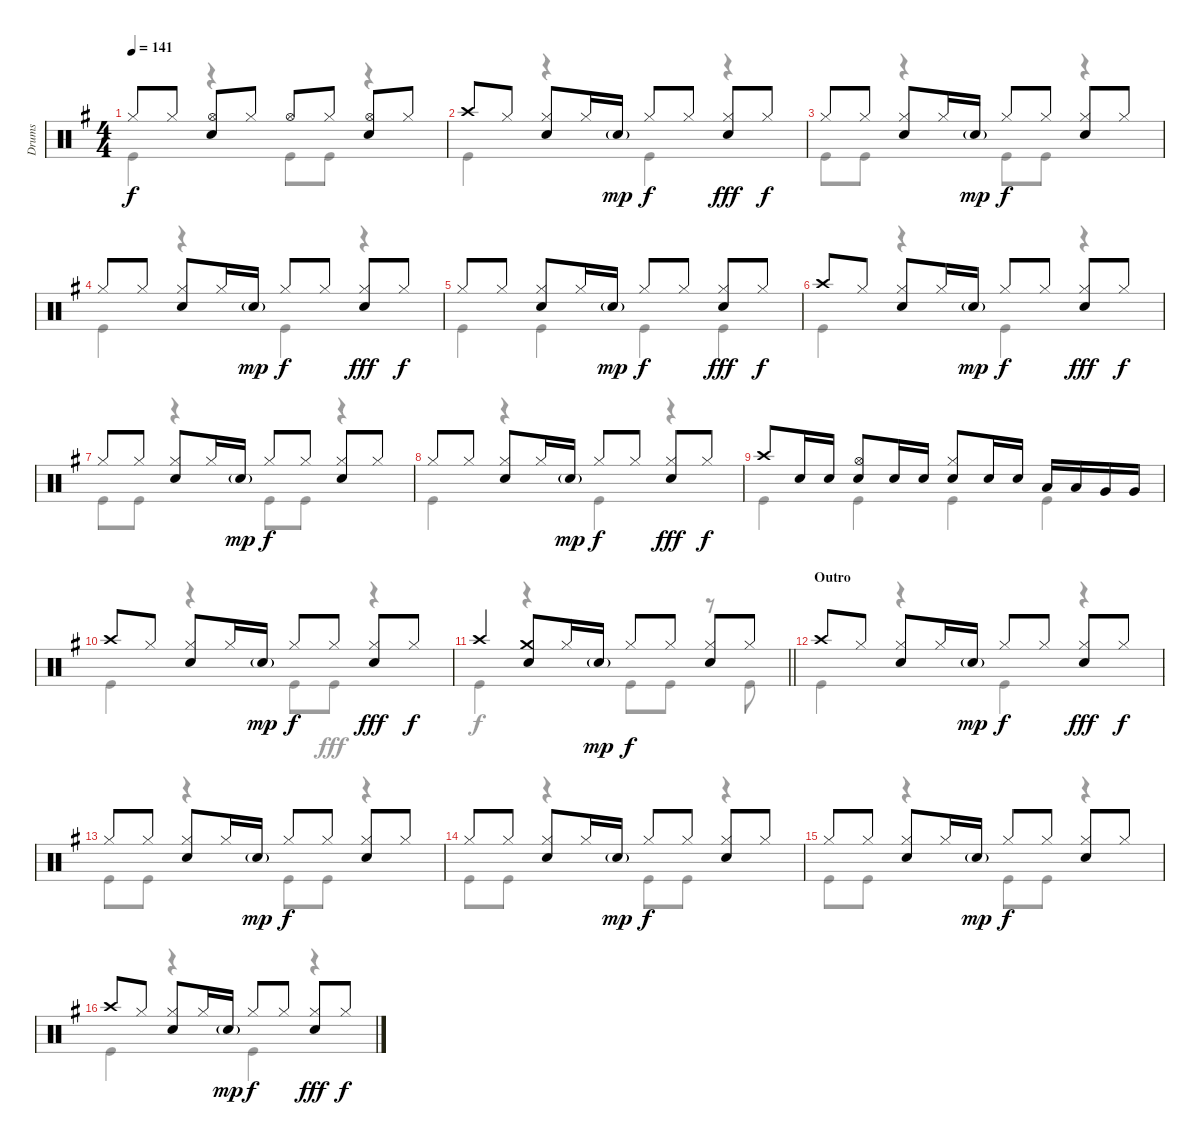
\track ("Drums" "Drums") {instrument percussion}
\staff {score}
\articulation defaults
\voice
\ts (4 4)
\tempo 141
\clef neutral
\ks g "Hi-Hat (closed)".8{dy f} "Hi-Hat (closed)".8
("Hi-Hat (open)" "Snare (hit) 2").8 "Hi-Hat (closed)".8 "Hi-Hat (open)".8 "Hi-Hat (closed)".8 ("Hi-Hat (open)" "Snare (hit) 2").8 "Hi-Hat (closed)".8 |
"Crash high (hit)".8 "Hi-Hat (closed)".8 ("Hi-Hat (closed)" "Snare (hit) 2").8 "Hi-Hat (closed)".16 "Snare (hit) 2"{g}.16{dy mp} "Hi-Hat (closed)".8{dy f} "Hi-Hat (closed)".8 ("Hi-Hat (closed)" "Snare (hit) 2").8{dy fff} "Hi-Hat (closed)".8{dy f} |
"Hi-Hat (closed)".8 "Hi-Hat (closed)".8 ("Hi-Hat (closed)" "Snare (hit) 2").8 "Hi-Hat (closed)".16 "Snare (hit) 2"{g}.16{dy mp} "Hi-Hat (closed)".8{dy f} "Hi-Hat (closed)".8 ("Hi-Hat (closed)" "Snare (hit) 2").8 "Hi-Hat (closed)".8 |
"Hi-Hat (closed)".8 "Hi-Hat (closed)".8 ("Hi-Hat (closed)" "Snare (hit) 2").8 "Hi-Hat (closed)".16 "Snare (hit) 2"{g}.16{dy mp} "Hi-Hat (closed)".8{dy f} "Hi-Hat (closed)".8 ("Hi-Hat (closed)" "Snare (hit) 2").8{dy fff} "Hi-Hat (closed)".8{dy f} |
"Hi-Hat (closed)".8 "Hi-Hat (closed)".8 ("Hi-Hat (closed)" "Snare (hit) 2").8 "Hi-Hat (closed)".16 "Snare (hit) 2"{g}.16{dy mp} "Hi-Hat (closed)".8{dy f} "Hi-Hat (closed)".8 ("Hi-Hat (closed)" "Snare (hit) 2").8{dy fff} "Hi-Hat (closed)".8{dy f} |
"Crash high (hit)".8 "Hi-Hat (closed)".8 ("Hi-Hat (closed)" "Snare (hit) 2").8 "Hi-Hat (closed)".16 "Snare (hit) 2"{g}.16{dy mp} "Hi-Hat (closed)".8{dy f} "Hi-Hat (closed)".8 ("Hi-Hat (closed)" "Snare (hit) 2").8{dy fff} "Hi-Hat (closed)".8{dy f} |
"Hi-Hat (closed)".8 "Hi-Hat (closed)".8 ("Hi-Hat (closed)" "Snare (hit) 2").8 "Hi-Hat (closed)".16 "Snare (hit) 2"{g}.16{dy mp} "Hi-Hat (closed)".8{dy f} "Hi-Hat (closed)".8 ("Hi-Hat (closed)" "Snare (hit) 2").8 "Hi-Hat (closed)".8 |
"Hi-Hat (closed)".8 "Hi-Hat (closed)".8 ("Hi-Hat (closed)" "Snare (hit) 2").8 "Hi-Hat (closed)".16 "Snare (hit) 2"{g}.16{dy mp} "Hi-Hat (closed)".8{dy f} "Hi-Hat (closed)".8 ("Hi-Hat (closed)" "Snare (hit) 2").8{dy fff} "Hi-Hat (closed)".8{dy f} |
"Crash high (hit)".8 "Snare (hit) 2".16 "Snare (hit) 2".16 ("Hi-Hat (open)" "Snare (hit) 2").8 "Snare (hit) 2".16 "Snare (hit) 2".16 ("Hi-Hat (closed)" "Snare (hit) 2").8 "Snare (hit) 2".16 "Snare (hit) 2".16 "Low Tom (hit)".16 "Low Tom (hit)".16 "Very Low Tom (hit)".16 "Very Low Tom (hit)".16 |
"Crash high (hit)".8 "Hi-Hat (closed)".8 ("Hi-Hat (closed)" "Snare (hit) 2").8 "Hi-Hat (closed)".16 "Snare (hit) 2"{g}.16{dy mp} "Hi-Hat (closed)".8{dy f} "Hi-Hat (closed)".8 ("Hi-Hat (closed)" "Snare (hit) 2").8{dy fff} "Hi-Hat (closed)".8{dy f} |
\barLineRight lightlight "Crash high (hit)".4
("Crash medium (hit)" "Snare (hit) 2").8 "Hi-Hat (closed)".16 "Snare (hit) 2"{g}.16{dy mp} "Hi-Hat (closed)".8{dy f} "Hi-Hat (closed)".8 ("Hi-Hat (closed)" "Snare (hit) 2").8 "Hi-Hat (closed)".8 |
\section ("" "Outro")
"Crash high (hit)".8 "Hi-Hat (closed)".8 ("Hi-Hat (closed)" "Snare (hit) 2").8 "Hi-Hat (closed)".16 "Snare (hit) 2"{g}.16{dy mp} "Hi-Hat (closed)".8{dy f} "Hi-Hat (closed)".8 ("Hi-Hat (closed)" "Snare (hit) 2").8{dy fff} "Hi-Hat (closed)".8{dy f} |
"Hi-Hat (closed)".8 "Hi-Hat (closed)".8 ("Hi-Hat (closed)" "Snare (hit) 2").8 "Hi-Hat (closed)".16 "Snare (hit) 2"{g}.16{dy mp} "Hi-Hat (closed)".8{dy f} "Hi-Hat (closed)".8 ("Hi-Hat (closed)" "Snare (hit) 2").8 "Hi-Hat (closed)".8 |
"Hi-Hat (closed)".8 "Hi-Hat (closed)".8 ("Hi-Hat (closed)" "Snare (hit) 2").8 "Hi-Hat (closed)".16 "Snare (hit) 2"{g}.16{dy mp} "Hi-Hat (closed)".8{dy f} "Hi-Hat (closed)".8 ("Hi-Hat (closed)" "Snare (hit) 2").8 "Hi-Hat (closed)".8 |
"Hi-Hat (closed)".8 "Hi-Hat (closed)".8 ("Hi-Hat (closed)" "Snare (hit) 2").8 "Hi-Hat (closed)".16 "Snare (hit) 2"{g}.16{dy mp} "Hi-Hat (closed)".8{dy f} "Hi-Hat (closed)".8 ("Hi-Hat (closed)" "Snare (hit) 2").8 "Hi-Hat (closed)".8 |
"Crash high (hit)".8 "Hi-Hat (closed)".8 ("Hi-Hat (closed)" "Snare (hit) 2").8 "Hi-Hat (closed)".16 "Snare (hit) 2"{g}.16{dy mp} "Hi-Hat (closed)".8{dy f} "Hi-Hat (closed)".8 ("Hi-Hat (closed)" "Snare (hit) 2").8{dy fff} "Hi-Hat (closed)".8{dy f}
\voice
\clef neutral
\ottava regular
\simile none
\ks g "Kick (hit)".4{dy f}
r.4 "Kick (hit)".8 "Kick (hit)".8 r.4 |
"Kick (hit)".4 r.4 "Kick (hit)".4 r.4 |
"Kick (hit)".8 "Kick (hit)".8 r.4 "Kick (hit)".8 "Kick (hit)".8 r.4 |
"Kick (hit)".4 r.4 "Kick (hit)".4 r.4 |
"Kick (hit)".4 "Kick (hit)".4 "Kick (hit)".4 "Kick (hit)".4 |
"Kick (hit)".4 r.4 "Kick (hit)".4 r.4 |
"Kick (hit)".8 "Kick (hit)".8 r.4 "Kick (hit)".8 "Kick (hit)".8 r.4 |
"Kick (hit)".4 r.4 "Kick (hit)".4 r.4 |
"Kick (hit)".4 "Kick (hit)".4 "Kick (hit)".4 "Kick (hit)".4 |
"Kick (hit)".4 r.4 "Kick (hit)".8 "Kick (hit)".8{dy fff} r.4 |
\barLineRight lightlight "Kick (hit)".4{dy f}
r.4 "Kick (hit)".8 "Kick (hit)".8 r.8 "Kick (hit)".8 |
"Kick (hit)".4 r.4 "Kick (hit)".4 r.4 |
"Kick (hit)".8 "Kick (hit)".8 r.4 "Kick (hit)".8 "Kick (hit)".8 r.4 |
"Kick (hit)".8 "Kick (hit)".8 r.4 "Kick (hit)".8 "Kick (hit)".8 r.4 |
"Kick (hit)".8 "Kick (hit)".8 r.4 "Kick (hit)".8 "Kick (hit)".8 r.4 |
"Kick (hit)".4 r.4 "Kick (hit)".4 r.4
